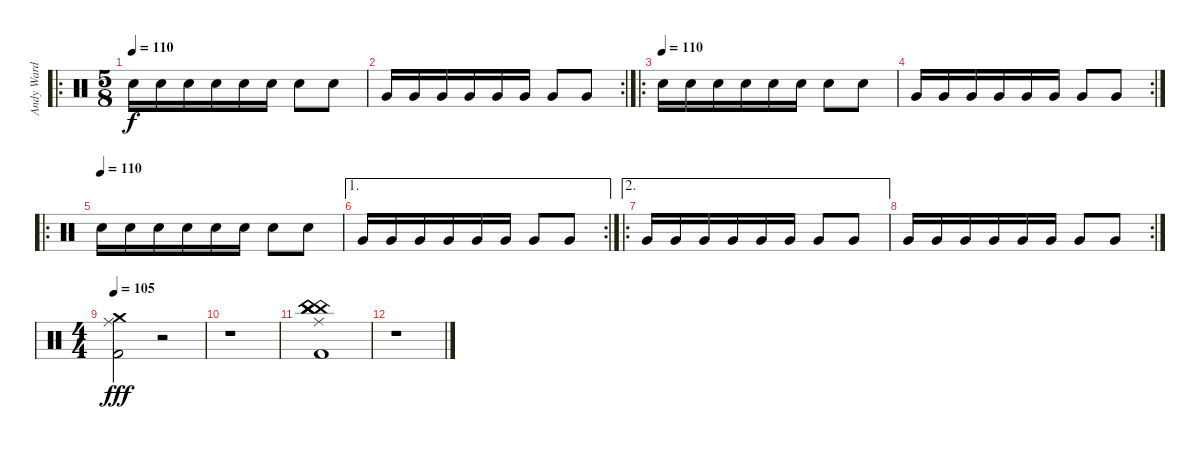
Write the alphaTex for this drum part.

\track ("Andy Ward - Drums" "Andy Ward ") {instrument percussion}
\staff {score}
\articulation defaults
\ro
\ts (5 8)
\tempo 110
\clef neutral
\ks c "Electric Snare (hit)".16{dy f} "Electric Snare (hit)".16 "Electric Snare (hit)".16 "Electric Snare (hit)".16 "Electric Snare (hit)".16 "Electric Snare (hit)".16 "Electric Snare (hit)".8 "Electric Snare (hit)".8
|
\rc 2 "Very Low Tom (hit)".16 "Very Low Tom (hit)".16 "Very Low Tom (hit)".16 "Very Low Tom (hit)".16 "Very Low Tom (hit)".16 "Very Low Tom (hit)".16 "Very Low Tom (hit)".8 "Very Low Tom (hit)".8
|
\ro
\tempo (110)
"Electric Snare (hit)".16 "Electric Snare (hit)".16 "Electric Snare (hit)".16 "Electric Snare (hit)".16 "Electric Snare (hit)".16 "Electric Snare (hit)".16 "Electric Snare (hit)".8 "Electric Snare (hit)".8 |
\rc 2 "Very Low Tom (hit)".16 "Very Low Tom (hit)".16 "Very Low Tom (hit)".16 "Very Low Tom (hit)".16 "Very Low Tom (hit)".16 "Very Low Tom (hit)".16 "Very Low Tom (hit)".8 "Very Low Tom (hit)".8
|
\ro
\tempo (110)
"Electric Snare (hit)".16 "Electric Snare (hit)".16 "Electric Snare (hit)".16 "Electric Snare (hit)".16 "Electric Snare (hit)".16 "Electric Snare (hit)".16 "Electric Snare (hit)".8 "Electric Snare (hit)".8 |
\ae 1
\rc 2 "Very Low Tom (hit)".16 "Very Low Tom (hit)".16 "Very Low Tom (hit)".16 "Very Low Tom (hit)".16 "Very Low Tom (hit)".16 "Very Low Tom (hit)".16 "Very Low Tom (hit)".8 "Very Low Tom (hit)".8
|
\ae 2
\ro "Very Low Tom (hit)".16 "Very Low Tom (hit)".16 "Very Low Tom (hit)".16 "Very Low Tom (hit)".16 "Very Low Tom (hit)".16 "Very Low Tom (hit)".16 "Very Low Tom (hit)".8 "Very Low Tom (hit)".8
|
\rc 2 "Very Low Tom (hit)".16 "Very Low Tom (hit)".16 "Very Low Tom (hit)".16 "Very Low Tom (hit)".16 "Very Low Tom (hit)".16 "Very Low Tom (hit)".16 "Very Low Tom (hit)".8 "Very Low Tom (hit)".8
|
\ts (4 4)
\tempo 105
("Crash medium (hit)" "Ride (middle)" "Kick (hit) 2").2{dy fff} r.2 |
r.1 |
("China (hit)" "China (hit)" "Ride (middle)" "China (hit)" "Kick (hit) 2" "China (hit)").1{volume 16} |
r.1
